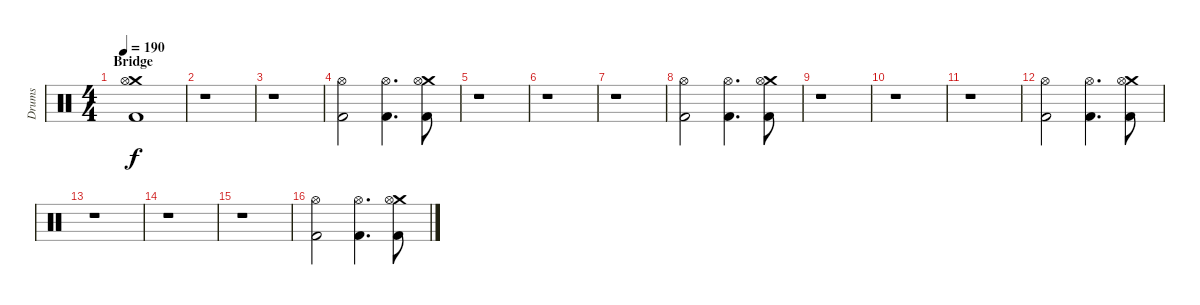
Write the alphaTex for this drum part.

\track ("Drums" "Drums") {instrument percussion}
\staff {score}
\articulation defaults
\ts (4 4)
\section ("" "Bridge")
\tempo 190
\clef neutral
\ks c
("Crash medium (hit)" "Hi-Hat (open)" "Kick (hit) 2").1{dy f} |
r.1 |
r.1 |
("Hi-Hat (open)" "Kick (hit) 2").2 ("Hi-Hat (open)" "Kick (hit) 2").4{d} ("Crash medium (hit)" "Hi-Hat (open)" "Kick (hit) 2").8 |
r.1 |
r.1 |
r.1 |
("Hi-Hat (open)" "Kick (hit) 2").2 ("Hi-Hat (open)" "Kick (hit) 2").4{d} ("Crash medium (hit)" "Hi-Hat (open)" "Kick (hit) 2").8 |
r.1 |
r.1 |
r.1 |
("Hi-Hat (open)" "Kick (hit) 2").2 ("Hi-Hat (open)" "Kick (hit) 2").4{d} ("Crash medium (hit)" "Hi-Hat (open)" "Kick (hit) 2").8 |
r.1 |
r.1 |
r.1 |
("Hi-Hat (open)" "Kick (hit) 2").2 ("Hi-Hat (open)" "Kick (hit) 2").4{d} ("Crash medium (hit)" "Hi-Hat (open)" "Kick (hit) 2").8
